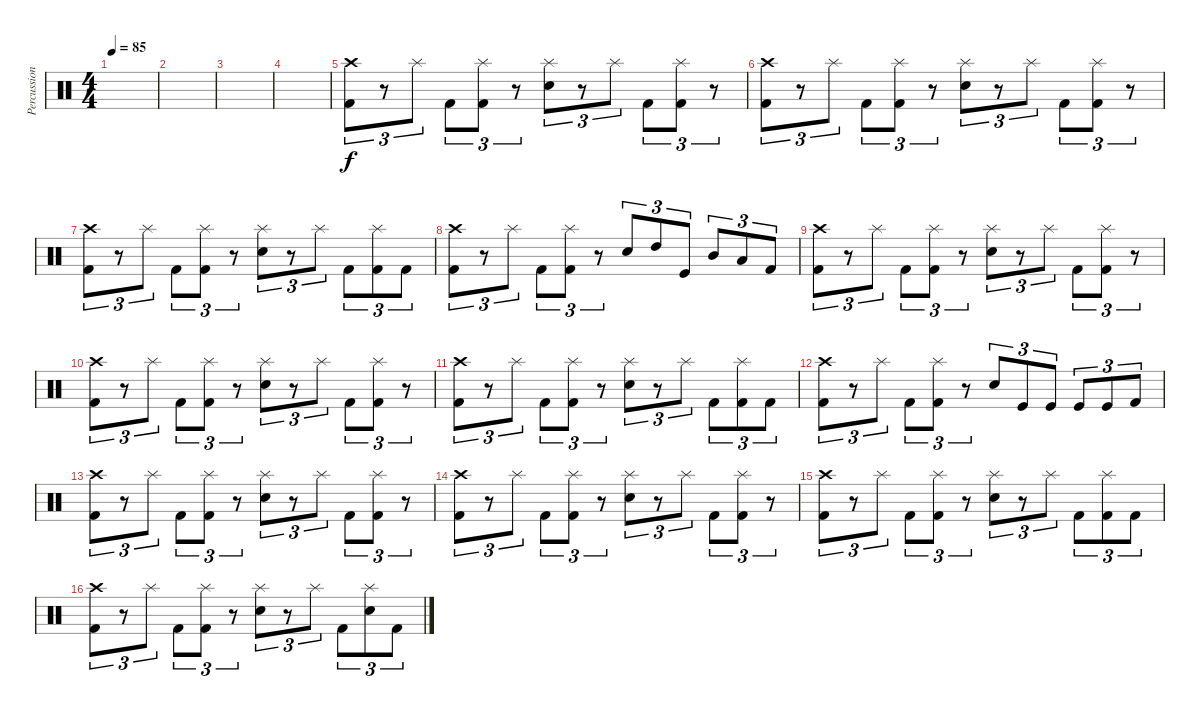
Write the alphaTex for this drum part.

\track ("Percussion" "Percussion") {instrument percussion}
\staff {score}
\articulation defaults
\ts (4 4)
\tempo 85
\clef neutral
\ks c
|
|
|
|
("Crash high (hit)" "Kick (hit) 2").8{tu (3 2)} r.8{tu (3 2)} "Splash (hit)".8{tu (3 2)} "Kick (hit) 2".8{tu (3 2)} ("Splash (hit)" "Kick (hit) 2").8{tu (3 2)} r.8{tu (3 2)} ("Splash (hit)" "Electric Snare (hit)").8{tu (3 2)} r.8{tu (3 2)} "Splash (hit)".8{tu (3 2)} "Kick (hit) 2".8{tu (3 2)} ("Splash (hit)" "Kick (hit) 2").8{tu (3 2)} r.8{tu (3 2)} |
("Crash high (hit)" "Kick (hit) 2").8{tu (3 2)} r.8{tu (3 2)} "Splash (hit)".8{tu (3 2)} "Kick (hit) 2".8{tu (3 2)} ("Splash (hit)" "Kick (hit) 2").8{tu (3 2)} r.8{tu (3 2)} ("Splash (hit)" "Electric Snare (hit)").8{tu (3 2)} r.8{tu (3 2)} "Splash (hit)".8{tu (3 2)} "Kick (hit) 2".8{tu (3 2)} ("Splash (hit)" "Kick (hit) 2").8{tu (3 2)} r.8{tu (3 2)} |
("Crash high (hit)" "Kick (hit) 2").8{tu (3 2)} r.8{tu (3 2)} "Splash (hit)".8{tu (3 2)} "Kick (hit) 2".8{tu (3 2)} ("Splash (hit)" "Kick (hit) 2").8{tu (3 2)} r.8{tu (3 2)} ("Splash (hit)" "Electric Snare (hit)").8{tu (3 2)} r.8{tu (3 2)} "Splash (hit)".8{tu (3 2)} "Kick (hit) 2".8{tu (3 2)} ("Splash (hit)" "Kick (hit) 2").8{tu (3 2)} "Kick (hit) 2".8{tu (3 2)} |
("Crash high (hit)" "Kick (hit) 2").8{tu (3 2)} r.8{tu (3 2)} "Splash (hit)".8{tu (3 2)} "Kick (hit) 2".8{tu (3 2)} ("Splash (hit)" "Kick (hit) 2").8{tu (3 2)} r.8{tu (3 2)} "Electric Snare (hit)".8{tu (3 2)} "High Tom (hit)".8{tu (3 2)} "Kick (hit)".8{tu (3 2)} "Mid Tom (hit)".8{tu (3 2)} "Low Tom (hit)".8{tu (3 2)} "Kick (hit) 2".8{tu (3 2)} |
("Crash high (hit)" "Kick (hit) 2").8{tu (3 2)} r.8{tu (3 2)} "Splash (hit)".8{tu (3 2)} "Kick (hit) 2".8{tu (3 2)} ("Splash (hit)" "Kick (hit) 2").8{tu (3 2)} r.8{tu (3 2)} ("Splash (hit)" "Electric Snare (hit)").8{tu (3 2)} r.8{tu (3 2)} "Splash (hit)".8{tu (3 2)} "Kick (hit) 2".8{tu (3 2)} ("Splash (hit)" "Kick (hit) 2").8{tu (3 2)} r.8{tu (3 2)} |
("Crash high (hit)" "Kick (hit) 2").8{tu (3 2)} r.8{tu (3 2)} "Splash (hit)".8{tu (3 2)} "Kick (hit) 2".8{tu (3 2)} ("Splash (hit)" "Kick (hit) 2").8{tu (3 2)} r.8{tu (3 2)} ("Splash (hit)" "Electric Snare (hit)").8{tu (3 2)} r.8{tu (3 2)} "Splash (hit)".8{tu (3 2)} "Kick (hit) 2".8{tu (3 2)} ("Splash (hit)" "Kick (hit) 2").8{tu (3 2)} r.8{tu (3 2)} |
("Crash high (hit)" "Kick (hit) 2").8{tu (3 2)} r.8{tu (3 2)} "Splash (hit)".8{tu (3 2)} "Kick (hit) 2".8{tu (3 2)} ("Splash (hit)" "Kick (hit) 2").8{tu (3 2)} r.8{tu (3 2)} ("Splash (hit)" "Electric Snare (hit)").8{tu (3 2)} r.8{tu (3 2)} "Splash (hit)".8{tu (3 2)} "Kick (hit) 2".8{tu (3 2)} ("Splash (hit)" "Kick (hit) 2").8{tu (3 2)} "Kick (hit) 2".8{tu (3 2)} |
("Crash high (hit)" "Kick (hit) 2").8{tu (3 2)} r.8{tu (3 2)} "Splash (hit)".8{tu (3 2)} "Kick (hit) 2".8{tu (3 2)} ("Splash (hit)" "Kick (hit) 2").8{tu (3 2)} r.8{tu (3 2)} "Electric Snare (hit)".8{tu (3 2)} "Kick (hit)".8{tu (3 2)} "Kick (hit)".8{tu (3 2)} "Kick (hit)".8{tu (3 2)} "Kick (hit)".8{tu (3 2)} "Kick (hit) 2".8{tu (3 2)} |
("Crash high (hit)" "Kick (hit) 2").8{tu (3 2)} r.8{tu (3 2)} "Splash (hit)".8{tu (3 2)} "Kick (hit) 2".8{tu (3 2)} ("Splash (hit)" "Kick (hit) 2").8{tu (3 2)} r.8{tu (3 2)} ("Splash (hit)" "Electric Snare (hit)").8{tu (3 2)} r.8{tu (3 2)} "Splash (hit)".8{tu (3 2)} "Kick (hit) 2".8{tu (3 2)} ("Splash (hit)" "Kick (hit) 2").8{tu (3 2)} r.8{tu (3 2)} |
("Crash high (hit)" "Kick (hit) 2").8{tu (3 2)} r.8{tu (3 2)} "Splash (hit)".8{tu (3 2)} "Kick (hit) 2".8{tu (3 2)} ("Splash (hit)" "Kick (hit) 2").8{tu (3 2)} r.8{tu (3 2)} ("Splash (hit)" "Electric Snare (hit)").8{tu (3 2)} r.8{tu (3 2)} "Splash (hit)".8{tu (3 2)} "Kick (hit) 2".8{tu (3 2)} ("Splash (hit)" "Kick (hit) 2").8{tu (3 2)} r.8{tu (3 2)} |
("Crash high (hit)" "Kick (hit) 2").8{tu (3 2)} r.8{tu (3 2)} "Splash (hit)".8{tu (3 2)} "Kick (hit) 2".8{tu (3 2)} ("Splash (hit)" "Kick (hit) 2").8{tu (3 2)} r.8{tu (3 2)} ("Splash (hit)" "Electric Snare (hit)").8{tu (3 2)} r.8{tu (3 2)} "Splash (hit)".8{tu (3 2)} "Kick (hit) 2".8{tu (3 2)} ("Splash (hit)" "Kick (hit) 2").8{tu (3 2)} "Kick (hit) 2".8{tu (3 2)} |
("Crash high (hit)" "Kick (hit) 2").8{tu (3 2)} r.8{tu (3 2)} "Splash (hit)".8{tu (3 2)} "Kick (hit) 2".8{tu (3 2)} ("Splash (hit)" "Kick (hit) 2").8{tu (3 2)} r.8{tu (3 2)} ("Splash (hit)" "Electric Snare (hit)").8{tu (3 2)} r.8{tu (3 2)} "Splash (hit)".8{tu (3 2)} "Kick (hit) 2".8{tu (3 2)} ("Splash (hit)" "Electric Snare (hit)").8{tu (3 2)} "Kick (hit) 2".8{tu (3 2)}
